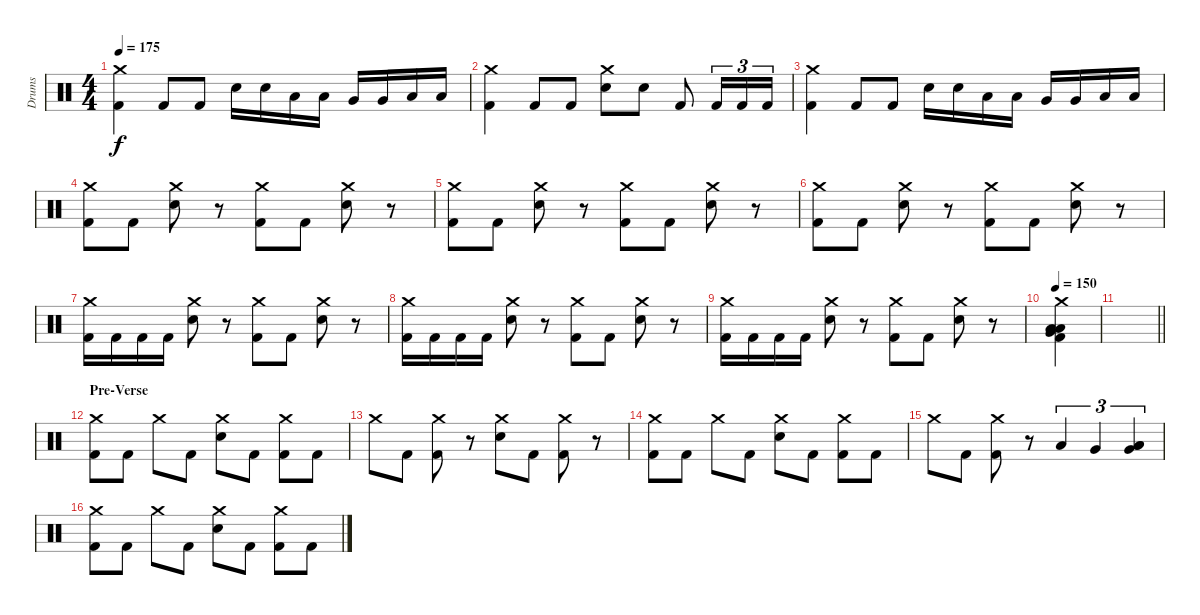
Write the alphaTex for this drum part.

\track ("Drums" "Drums") {instrument percussion}
\staff {score}
\articulation defaults
\ts (4 4)
\tempo 175
\clef neutral
\ks c
("Crash medium (hit)" "Kick (hit) 2").4{dy f} "Kick (hit) 2".8 "Kick (hit) 2".8 "Electric Snare (hit)".16 "Electric Snare (hit)".16 "Low Tom (hit)".16 "Low Tom (hit)".16 "Very Low Tom (hit)".16 "Very Low Tom (hit)".16 "Low Floor Tom (hit)".16 "Low Floor Tom (hit)".16 |
("Crash medium (hit)" "Kick (hit) 2").4 "Kick (hit) 2".8 "Kick (hit) 2".8 ("Crash medium (hit)" "Electric Snare (hit)").8 "Electric Snare (hit)".8 "Kick (hit) 2".8 "Kick (hit) 2".16{tu (3 2)} "Kick (hit) 2".16{tu (3 2)} "Kick (hit) 2".16{tu (3 2)} |
("Crash medium (hit)" "Kick (hit) 2").4 "Kick (hit) 2".8 "Kick (hit) 2".8 "Electric Snare (hit)".16 "Electric Snare (hit)".16 "Low Tom (hit)".16 "Low Tom (hit)".16 "Very Low Tom (hit)".16 "Very Low Tom (hit)".16 "Low Floor Tom (hit)".16 "Low Floor Tom (hit)".16 |
("Crash medium (hit)" "Kick (hit) 2").8 "Kick (hit) 2".8 ("Crash medium (hit)" "Electric Snare (hit)").8 r.8 ("Crash medium (hit)" "Kick (hit) 2").8 "Kick (hit) 2".8 ("Crash medium (hit)" "Electric Snare (hit)").8 r.8 |
("Crash medium (hit)" "Kick (hit) 2").8 "Kick (hit) 2".8 ("Crash medium (hit)" "Electric Snare (hit)").8 r.8 ("Crash medium (hit)" "Kick (hit) 2").8 "Kick (hit) 2".8 ("Crash medium (hit)" "Electric Snare (hit)").8 r.8 |
("Crash medium (hit)" "Kick (hit) 2").8 "Kick (hit) 2".8 ("Crash medium (hit)" "Electric Snare (hit)").8 r.8 ("Crash medium (hit)" "Kick (hit) 2").8 "Kick (hit) 2".8 ("Crash medium (hit)" "Electric Snare (hit)").8 r.8 |
("Crash medium (hit)" "Kick (hit) 2").16 "Kick (hit) 2".16 "Kick (hit) 2".16 "Kick (hit) 2".16 ("Crash medium (hit)" "Electric Snare (hit)").8 r.8 ("Crash medium (hit)" "Kick (hit) 2").8 "Kick (hit) 2".8 ("Crash medium (hit)" "Electric Snare (hit)").8 r.8 |
("Crash medium (hit)" "Kick (hit) 2").16 "Kick (hit) 2".16 "Kick (hit) 2".16 "Kick (hit) 2".16 ("Crash medium (hit)" "Electric Snare (hit)").8 r.8 ("Crash medium (hit)" "Kick (hit) 2").8 "Kick (hit) 2".8 ("Crash medium (hit)" "Electric Snare (hit)").8 r.8 |
("Crash medium (hit)" "Kick (hit) 2").16 "Kick (hit) 2".16 "Kick (hit) 2".16 "Kick (hit) 2".16 ("Crash medium (hit)" "Electric Snare (hit)").8 r.8 ("Crash medium (hit)" "Kick (hit) 2").8 "Kick (hit) 2".8 ("Crash medium (hit)" "Electric Snare (hit)").8 r.8 |
\tempo 150
("Crash medium (hit)" "Low Tom (hit)" "Very Low Tom (hit)" "Low Floor Tom (hit)" "Kick (hit) 2").4 |
\barLineRight lightlight
|
\section ("" "Pre-Verse")
("Crash medium (hit)" "Kick (hit) 2").8 "Kick (hit) 2".8 "Crash medium (hit)".8 "Kick (hit) 2".8 ("Crash medium (hit)" "Electric Snare (hit)").8 "Kick (hit) 2".8 ("Crash medium (hit)" "Kick (hit) 2").8 "Kick (hit) 2".8 |
"Crash medium (hit)".8 "Kick (hit) 2".8 ("Crash medium (hit)" "Kick (hit) 2").8 r.8 ("Crash medium (hit)" "Electric Snare (hit)").8 "Kick (hit) 2".8 ("Crash medium (hit)" "Kick (hit) 2").8 r.8 |
("Crash medium (hit)" "Kick (hit) 2").8 "Kick (hit) 2".8 "Crash medium (hit)".8 "Kick (hit) 2".8 ("Crash medium (hit)" "Electric Snare (hit)").8 "Kick (hit) 2".8 ("Crash medium (hit)" "Kick (hit) 2").8 "Kick (hit) 2".8 |
"Crash medium (hit)".8 "Kick (hit) 2".8 ("Crash medium (hit)" "Kick (hit) 2").8 r.8 "Low Tom (hit)".4{tu (3 2)} "Very Low Tom (hit)".4{tu (3 2)} ("Low Tom (hit)" "Very Low Tom (hit)" "Low Floor Tom (hit)").4{tu (3 2)} |
("Crash medium (hit)" "Kick (hit) 2").8 "Kick (hit) 2".8 "Crash medium (hit)".8 "Kick (hit) 2".8 ("Crash medium (hit)" "Electric Snare (hit)").8 "Kick (hit) 2".8 ("Crash medium (hit)" "Kick (hit) 2").8 "Kick (hit) 2".8
